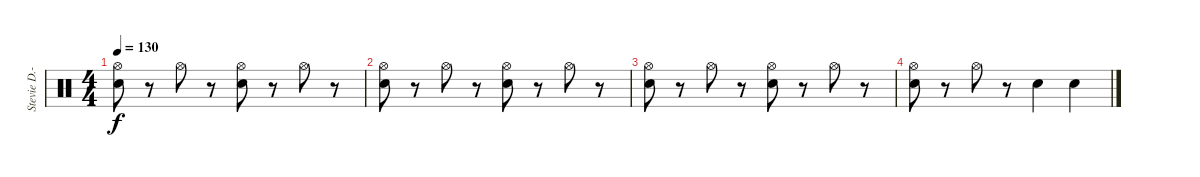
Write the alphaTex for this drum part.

\track ("Stevie D.-Drums" "Stevie D.-") {instrument percussion}
\staff {score}
\articulation defaults
\ts (4 4)
\tempo 130
\clef neutral
\ks c
("Snare (hit) 2" "Hi-Hat (open)").8{dy f} r.8 "Hi-Hat (open)".8 r.8 ("Snare (hit) 2" "Hi-Hat (open)").8 r.8 "Hi-Hat (open)".8 r.8 |
("Snare (hit) 2" "Hi-Hat (open)").8 r.8 "Hi-Hat (open)".8 r.8 ("Snare (hit) 2" "Hi-Hat (open)").8 r.8 "Hi-Hat (open)".8 r.8 |
("Snare (hit) 2" "Hi-Hat (open)").8 r.8 "Hi-Hat (open)".8 r.8 ("Snare (hit) 2" "Hi-Hat (open)").8 r.8 "Hi-Hat (open)".8 r.8 |
("Snare (hit) 2" "Hi-Hat (open)").8 r.8 "Hi-Hat (open)".8 r.8 "Snare (hit) 2".4 "Snare (hit) 2".4
